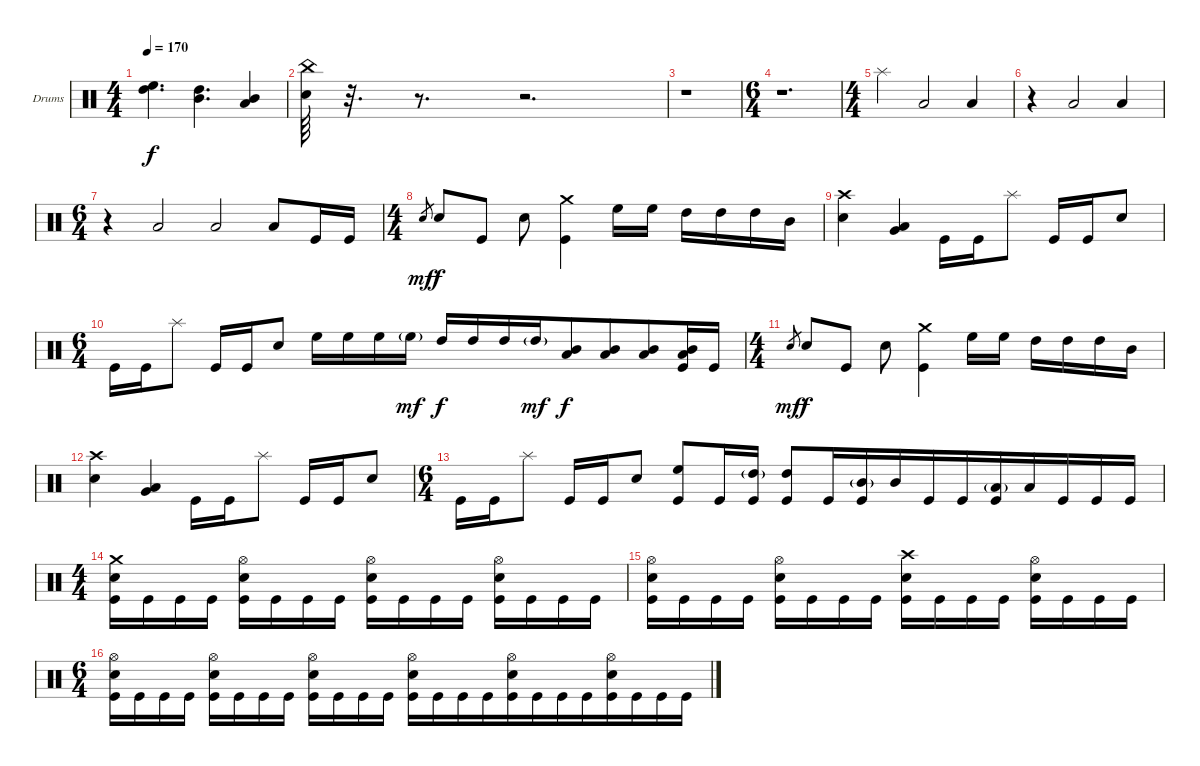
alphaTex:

\bracketExtendMode groupsimilarinstruments
\firstSystemTrackNameOrientation horizontal
\otherSystemsTrackNameOrientation horizontal
\track ("Дмитрий Кривенков" "Drums") {instrument percussion}
\staff {score}
\articulation defaults
\ts (4 4)
\tempo 170
\clef neutral
\ks c
("High Floor Tom (hit)" "High Tom (hit)").4{d dy f} ("High Tom (hit)" "Mid Tom (hit)").4{d} ("Mid Tom (hit)" "Low Tom (hit)").4 |
("China (hit)" "Snare (hit) 2").64 r.32{d} r.8{d} r.2{d} |
r.1 |
\ts (6 4)
\beaming (8 6 6)
r.1{d} |
\ts (4 4)
\beaming (8 6 6)
"Splash (hit)".4 "Low Tom (hit)".2 "Low Tom (hit)".4 |
r.4 "Low Tom (hit)".2 "Low Tom (hit)".4 |
\ts (6 4)
\beaming (8 6 6)
r.4 "Low Tom (hit)".2 "Low Tom (hit)".2 "Low Tom (hit)".8 "Kick (hit)".16 "Kick (hit)".16 |
\ts (4 4)
\beaming (8 2 2 2 2)
"Snare (hit) 2".8{gr dy mf} "Snare (hit) 2".8{dy f} "Kick (hit)".8 "Snare (hit) 2".8 ("Crash medium (hit)" "Kick (hit)").4 "High Floor Tom (hit)".16 "High Floor Tom (hit)".16 "High Tom (hit)".16 "High Tom (hit)".16 "High Tom (hit)".16 "Mid Tom (hit)".16 |
("Crash high (hit)" "Snare (hit) 2").4 ("Very Low Tom (hit)" "Low Tom (hit)").4 "Kick (hit)".16 "Kick (hit)".16 "Splash (hit)".8 "Kick (hit)".16 "Kick (hit)".16 "Snare (hit) 2".8 |
\ts (6 4)
\beaming (8 2 2 2 6)
"Kick (hit)".16 "Kick (hit)".16 "Splash (hit)".8 "Kick (hit)".16 "Kick (hit)".16 "Snare (hit) 2".8 "High Floor Tom (hit)".16 "High Floor Tom (hit)".16 "High Floor Tom (hit)".16 "High Floor Tom (hit)"{g}.16{dy mf} "High Tom (hit)".16{dy f} "High Tom (hit)".16 "High Tom (hit)".16 "High Tom (hit)"{g}.16{dy mf} ("Mid Tom (hit)" "Low Tom (hit)").8{dy f} ("Mid Tom (hit)" "Low Tom (hit)").8 ("Mid Tom (hit)" "Low Tom (hit)").8 ("Mid Tom (hit)" "Low Tom (hit)" "Kick (hit)").16 "Kick (hit)".16 |
\ts (4 4)
\beaming (8 2 2 2 2)
"Snare (hit) 2".8{gr dy mf} "Snare (hit) 2".8{dy f} "Kick (hit)".8 "Snare (hit) 2".8 ("Crash medium (hit)" "Kick (hit)").4 "High Floor Tom (hit)".16 "High Floor Tom (hit)".16 "High Tom (hit)".16 "High Tom (hit)".16 "High Tom (hit)".16 "Mid Tom (hit)".16 |
("Crash high (hit)" "Snare (hit) 2").4 ("Very Low Tom (hit)" "Low Tom (hit)").4 "Kick (hit)".16 "Kick (hit)".16 "Splash (hit)".8 "Kick (hit)".16 "Kick (hit)".16 "Snare (hit) 2".8 |
\ts (6 4)
\beaming (8 2 2 2 6)
"Kick (hit)".16 "Kick (hit)".16 "Splash (hit)".8 "Kick (hit)".16 "Kick (hit)".16 "Snare (hit) 2".8 ("High Floor Tom (hit)" "Kick (hit)").8 "Kick (hit)".16 ("High Tom (hit)"{g} "Kick (hit)").16 ("High Tom (hit)" "Kick (hit)").8 "Kick (hit)".16 ("Mid Tom (hit)"{g} "Kick (hit)").16 "Mid Tom (hit)".16 "Kick (hit)".16 "Kick (hit)".16 ("Low Tom (hit)"{g} "Kick (hit)").16 "Low Tom (hit)".16 "Kick (hit)".16 "Kick (hit)".16 "Kick (hit)".16 |
\ts (4 4)
\beaming (8 2 2 2 2)
("Crash medium (hit)" "Snare (hit) 2" "Kick (hit)").16 "Kick (hit)".16 "Kick (hit)".16 "Kick (hit)".16 ("Hi-Hat (open)" "Snare (hit) 2" "Kick (hit)").16 "Kick (hit)".16 "Kick (hit)".16 "Kick (hit)".16 ("Hi-Hat (open)" "Snare (hit) 2" "Kick (hit)").16 "Kick (hit)".16 "Kick (hit)".16 "Kick (hit)".16 ("Hi-Hat (open)" "Snare (hit) 2" "Kick (hit)").16 "Kick (hit)".16 "Kick (hit)".16 "Kick (hit)".16 |
("Hi-Hat (open)" "Snare (hit) 2" "Kick (hit)").16 "Kick (hit)".16 "Kick (hit)".16 "Kick (hit)".16 ("Hi-Hat (open)" "Snare (hit) 2" "Kick (hit)").16 "Kick (hit)".16 "Kick (hit)".16 "Kick (hit)".16 ("Crash high (hit)" "Snare (hit) 2" "Kick (hit)").16 "Kick (hit)".16 "Kick (hit)".16 "Kick (hit)".16 ("Hi-Hat (open)" "Snare (hit) 2" "Kick (hit)").16 "Kick (hit)".16 "Kick (hit)".16 "Kick (hit)".16 |
\ts (6 4)
\beaming (8 2 2 2 6)
("Hi-Hat (open)" "Snare (hit) 2" "Kick (hit)").16 "Kick (hit)".16 "Kick (hit)".16 "Kick (hit)".16 ("Hi-Hat (open)" "Snare (hit) 2" "Kick (hit)").16 "Kick (hit)".16 "Kick (hit)".16 "Kick (hit)".16 ("Hi-Hat (open)" "Snare (hit) 2" "Kick (hit)").16 "Kick (hit)".16 "Kick (hit)".16 "Kick (hit)".16 ("Hi-Hat (open)" "Snare (hit) 2" "Kick (hit)").16 "Kick (hit)".16 "Kick (hit)".16 "Kick (hit)".16 ("Hi-Hat (open)" "Snare (hit) 2" "Kick (hit)").16 "Kick (hit)".16 "Kick (hit)".16 "Kick (hit)".16 ("Hi-Hat (open)" "Snare (hit) 2" "Kick (hit)").16 "Kick (hit)".16 "Kick (hit)".16 "Kick (hit)".16
